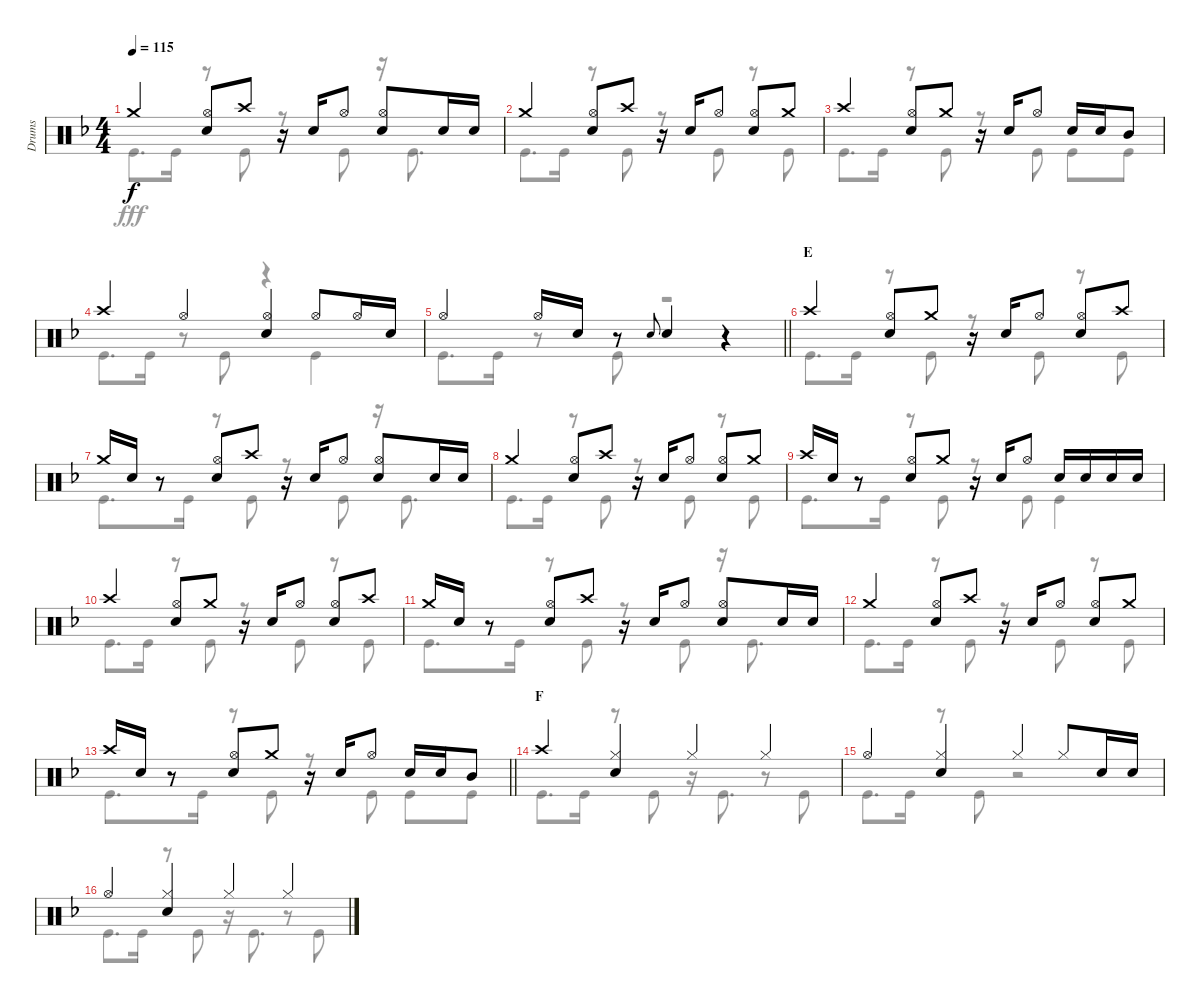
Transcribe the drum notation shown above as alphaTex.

\track ("Drums" "Drums") {instrument percussion}
\staff {score}
\articulation defaults
\voice
\ts (4 4)
\tempo 115
\clef neutral
\ks f "Crash medium (hit)".4{dy f}
("Hi-Hat (open)" "Snare (hit) 2").8 "Crash high (hit)".8 r.16 "Snare (hit) 2".16 "Hi-Hat (open)".8 ("Hi-Hat (open)" "Snare (hit) 2").8 "Snare (hit) 2".16 "Snare (hit) 2".16 |
"Crash medium (hit)".4 ("Hi-Hat (open)" "Snare (hit) 2").8 "Crash high (hit)".8 r.16 "Snare (hit) 2".16 "Hi-Hat (open)".8 ("Hi-Hat (open)" "Snare (hit) 2").8 "Crash medium (hit)".8 |
"Crash high (hit)".4 ("Hi-Hat (open)" "Snare (hit) 2").8 "Crash medium (hit)".8 r.16 "Snare (hit) 2".16 "Hi-Hat (open)".8 "Snare (hit) 2".16 "Snare (hit) 2".16 "Mid Tom (hit)".8 |
"Crash high (hit)".4 "Hi-Hat (open)".4 ("Hi-Hat (open)" "Snare (hit) 2").4 "Hi-Hat (open)".8 "Hi-Hat (open)".16 "Snare (hit) 2".16 |
\barLineRight lightlight "Hi-Hat (open)".4 "Hi-Hat (open)".16 "Snare (hit) 2".16
r.8 "Snare (hit) 2".8{gr onbeat} "Snare (hit) 2".4 r.4 |
\section ("" "E")
"Crash high (hit)".4 ("Hi-Hat (open)" "Snare (hit) 2").8 "Crash medium (hit)".8 r.16 "Snare (hit) 2".16 "Hi-Hat (open)".8 ("Hi-Hat (open)" "Snare (hit) 2").8 "Crash high (hit)".8 |
"Crash medium (hit)".16 "Snare (hit) 2".16 r.8 ("Hi-Hat (open)" "Snare (hit) 2").8 "Crash high (hit)".8 r.16 "Snare (hit) 2".16 "Hi-Hat (open)".8 ("Hi-Hat (open)" "Snare (hit) 2").8 "Snare (hit) 2".16 "Snare (hit) 2".16 |
"Crash medium (hit)".4 ("Hi-Hat (open)" "Snare (hit) 2").8 "Crash high (hit)".8 r.16 "Snare (hit) 2".16 "Hi-Hat (open)".8 ("Hi-Hat (open)" "Snare (hit) 2").8 "Crash medium (hit)".8 |
"Crash high (hit)".16 "Snare (hit) 2".16 r.8 ("Hi-Hat (open)" "Snare (hit) 2").8 "Crash medium (hit)".8 r.16 "Snare (hit) 2".16 "Hi-Hat (open)".8 "Snare (hit) 2".16 "Snare (hit) 2".16 "Snare (hit) 2".16 "Snare (hit) 2".16 |
"Crash high (hit)".4 ("Hi-Hat (open)" "Snare (hit) 2").8 "Crash medium (hit)".8 r.16 "Snare (hit) 2".16 "Hi-Hat (open)".8 ("Hi-Hat (open)" "Snare (hit) 2").8 "Crash high (hit)".8 |
"Crash medium (hit)".16 "Snare (hit) 2".16 r.8 ("Hi-Hat (open)" "Snare (hit) 2").8 "Crash high (hit)".8 r.16 "Snare (hit) 2".16 "Hi-Hat (open)".8 ("Hi-Hat (open)" "Snare (hit) 2").8 "Snare (hit) 2".16 "Snare (hit) 2".16 |
"Crash medium (hit)".4 ("Hi-Hat (open)" "Snare (hit) 2").8 "Crash high (hit)".8 r.16 "Snare (hit) 2".16 "Hi-Hat (open)".8 ("Hi-Hat (open)" "Snare (hit) 2").8 "Crash medium (hit)".8 |
\barLineRight lightlight "Crash high (hit)".16 "Snare (hit) 2".16
r.8 ("Hi-Hat (open)" "Snare (hit) 2").8 "Crash medium (hit)".8 r.16 "Snare (hit) 2".16 "Hi-Hat (open)".8 "Snare (hit) 2".16 "Snare (hit) 2".16 "Mid Tom (hit)".8 |
\section ("" "F")
"Crash high (hit)".4 ("Hi-Hat (closed)" "Snare (hit) 2").4 "Hi-Hat (closed)".4 "Hi-Hat (closed)".4 |
"Hi-Hat (open)".4 ("Hi-Hat (closed)" "Snare (hit) 2").4 "Hi-Hat (closed)".4 "Hi-Hat (closed)".8 "Snare (hit) 2".16 "Snare (hit) 2".16 |
"Hi-Hat (open)".4 ("Hi-Hat (closed)" "Snare (hit) 2").4 "Hi-Hat (closed)".4 "Hi-Hat (closed)".4
\voice
\clef neutral
\ottava regular
\simile none
\ks f "Kick (hit)".8{d dy fff} "Kick (hit)".16
r.8 "Kick (hit)".8 r.8 "Kick (hit)".8 r.16 "Kick (hit)".8{d} |
"Kick (hit)".8{d} "Kick (hit)".16 r.8 "Kick (hit)".8 r.8 "Kick (hit)".8 r.8 "Kick (hit)".8 |
"Kick (hit)".8{d} "Kick (hit)".16 r.8 "Kick (hit)".8 r.8 "Kick (hit)".8 "Kick (hit)".8 "Kick (hit)".8 |
"Kick (hit)".8{d} "Kick (hit)".16 r.8 "Kick (hit)".8 r.4 "Kick (hit)".4 |
\barLineRight lightlight "Kick (hit)".8{d} "Kick (hit)".16
r.8 "Kick (hit)".8 r.2 |
"Kick (hit)".8{d} "Kick (hit)".16 r.8 "Kick (hit)".8 r.8 "Kick (hit)".8 r.8 "Kick (hit)".8 |
"Kick (hit)".8{d} "Kick (hit)".16 r.8 "Kick (hit)".8 r.8 "Kick (hit)".8 r.16 "Kick (hit)".8{d} |
"Kick (hit)".8{d} "Kick (hit)".16 r.8 "Kick (hit)".8 r.8 "Kick (hit)".8 r.8 "Kick (hit)".8 |
"Kick (hit)".8{d} "Kick (hit)".16 r.8 "Kick (hit)".8 r.8 "Kick (hit)".8 "Kick (hit)".4 |
"Kick (hit)".8{d} "Kick (hit)".16 r.8 "Kick (hit)".8 r.8 "Kick (hit)".8 r.8 "Kick (hit)".8 |
"Kick (hit)".8{d} "Kick (hit)".16 r.8 "Kick (hit)".8 r.8 "Kick (hit)".8 r.16 "Kick (hit)".8{d} |
"Kick (hit)".8{d} "Kick (hit)".16 r.8 "Kick (hit)".8 r.8 "Kick (hit)".8 r.8 "Kick (hit)".8 |
\barLineRight lightlight "Kick (hit)".8{d} "Kick (hit)".16
r.8 "Kick (hit)".8 r.8 "Kick (hit)".8 "Kick (hit)".8 "Kick (hit)".8 |
"Kick (hit)".8{d} "Kick (hit)".16 r.8 "Kick (hit)".8 r.16 "Kick (hit)".8{d} r.8 "Kick (hit)".8 |
"Kick (hit)".8{d} "Kick (hit)".16 r.8 "Kick (hit)".8 r.2 |
"Kick (hit)".8{d} "Kick (hit)".16 r.8 "Kick (hit)".8 r.16 "Kick (hit)".8{d} r.8 "Kick (hit)".8
